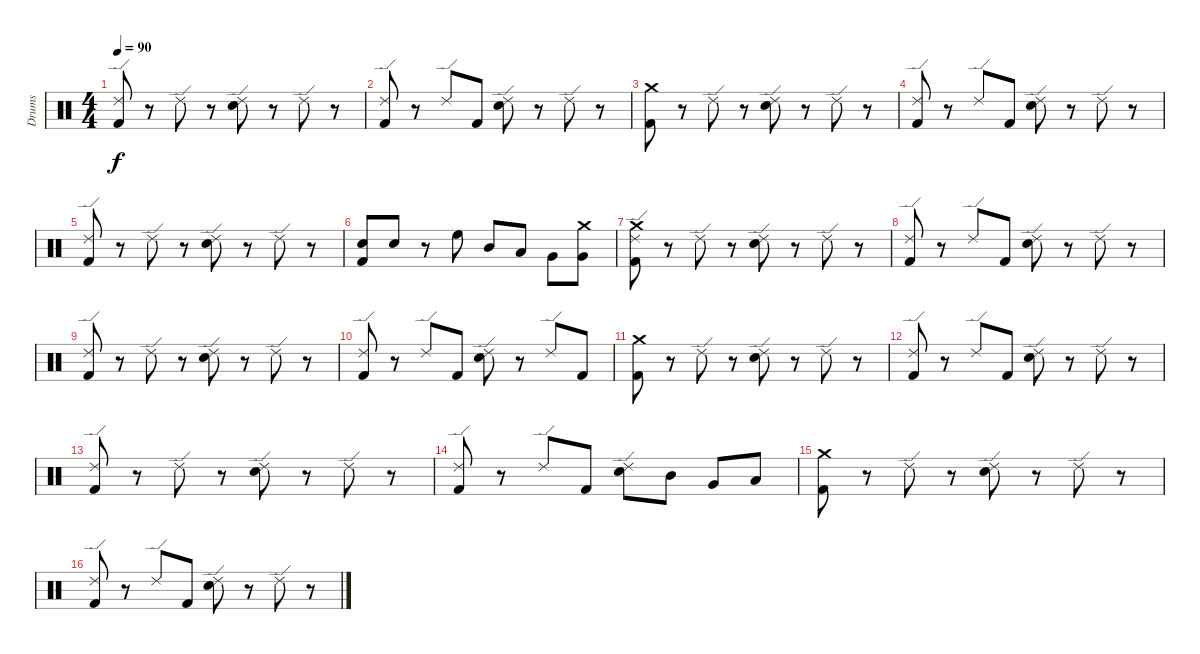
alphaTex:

\track ("Drums" "Drums") {instrument percussion}
\staff {score}
\articulation defaults
\ts (4 4)
\tempo 90
\clef neutral
\ks c
("Ride (edge) 2" "Kick (hit) 2").8{dy f} r.8 "Ride (edge) 2".8 r.8 ("Ride (edge) 2" "Snare (hit) 2").8 r.8 "Ride (edge) 2".8 r.8 |
("Ride (edge) 2" "Kick (hit) 2").8 r.8 "Ride (edge) 2".8 "Kick (hit) 2".8 ("Ride (edge) 2" "Snare (hit) 2").8 r.8 "Ride (edge) 2".8 r.8 |
("Crash medium (hit)" "Kick (hit) 2").8 r.8 "Ride (edge) 2".8 r.8 ("Ride (edge) 2" "Snare (hit) 2").8 r.8 "Ride (edge) 2".8 r.8 |
("Ride (edge) 2" "Kick (hit) 2").8 r.8 "Ride (edge) 2".8 "Kick (hit) 2".8 ("Ride (edge) 2" "Snare (hit) 2").8 r.8 "Ride (edge) 2".8 r.8 |
("Ride (edge) 2" "Kick (hit) 2").8 r.8 "Ride (edge) 2".8 r.8 ("Ride (edge) 2" "Snare (hit) 2").8 r.8 "Ride (edge) 2".8 r.8 |
("Snare (hit) 2" "Kick (hit) 2").8 "Snare (hit) 2".8 r.8 "High Floor Tom (hit)".8 "Mid Tom (hit)".8 "Low Tom (hit)".8 "Very Low Tom (hit)".8 ("Crash medium (hit)" "Very Low Tom (hit)").8 |
("Crash medium (hit)" "Ride (edge) 2" "Kick (hit) 2").8 r.8 "Ride (edge) 2".8 r.8 ("Ride (edge) 2" "Snare (hit) 2").8 r.8 "Ride (edge) 2".8 r.8 |
("Ride (edge) 2" "Kick (hit) 2").8 r.8 "Ride (edge) 2".8 "Kick (hit) 2".8 ("Ride (edge) 2" "Snare (hit) 2").8 r.8 "Ride (edge) 2".8 r.8 |
("Ride (edge) 2" "Kick (hit) 2").8 r.8 "Ride (edge) 2".8 r.8 ("Ride (edge) 2" "Snare (hit) 2").8 r.8 "Ride (edge) 2".8 r.8 |
("Ride (edge) 2" "Kick (hit) 2").8 r.8 "Ride (edge) 2".8 "Kick (hit) 2".8 ("Ride (edge) 2" "Snare (hit) 2").8 r.8 "Ride (edge) 2".8 "Kick (hit) 2".8 |
("Crash medium (hit)" "Kick (hit) 2").8 r.8 "Ride (edge) 2".8 r.8 ("Ride (edge) 2" "Snare (hit) 2").8 r.8 "Ride (edge) 2".8 r.8 |
("Ride (edge) 2" "Kick (hit) 2").8 r.8 "Ride (edge) 2".8 "Kick (hit) 2".8 ("Ride (edge) 2" "Snare (hit) 2").8 r.8 "Ride (edge) 2".8 r.8 |
("Ride (edge) 2" "Kick (hit) 2").8 r.8 "Ride (edge) 2".8 r.8 ("Ride (edge) 2" "Snare (hit) 2").8 r.8 "Ride (edge) 2".8 r.8 |
("Ride (edge) 2" "Kick (hit) 2").8 r.8 "Ride (edge) 2".8 "Kick (hit) 2".8 ("Ride (edge) 2" "Snare (hit) 2").8 "Mid Tom (hit)".8 "Very Low Tom (hit)".8 "Low Floor Tom (hit)".8 |
("Crash medium (hit)" "Kick (hit) 2").8 r.8 "Ride (edge) 2".8 r.8 ("Ride (edge) 2" "Snare (hit) 2").8 r.8 "Ride (edge) 2".8 r.8 |
("Ride (edge) 2" "Kick (hit) 2").8 r.8 "Ride (edge) 2".8 "Kick (hit) 2".8 ("Ride (edge) 2" "Snare (hit) 2").8 r.8 "Ride (edge) 2".8 r.8
